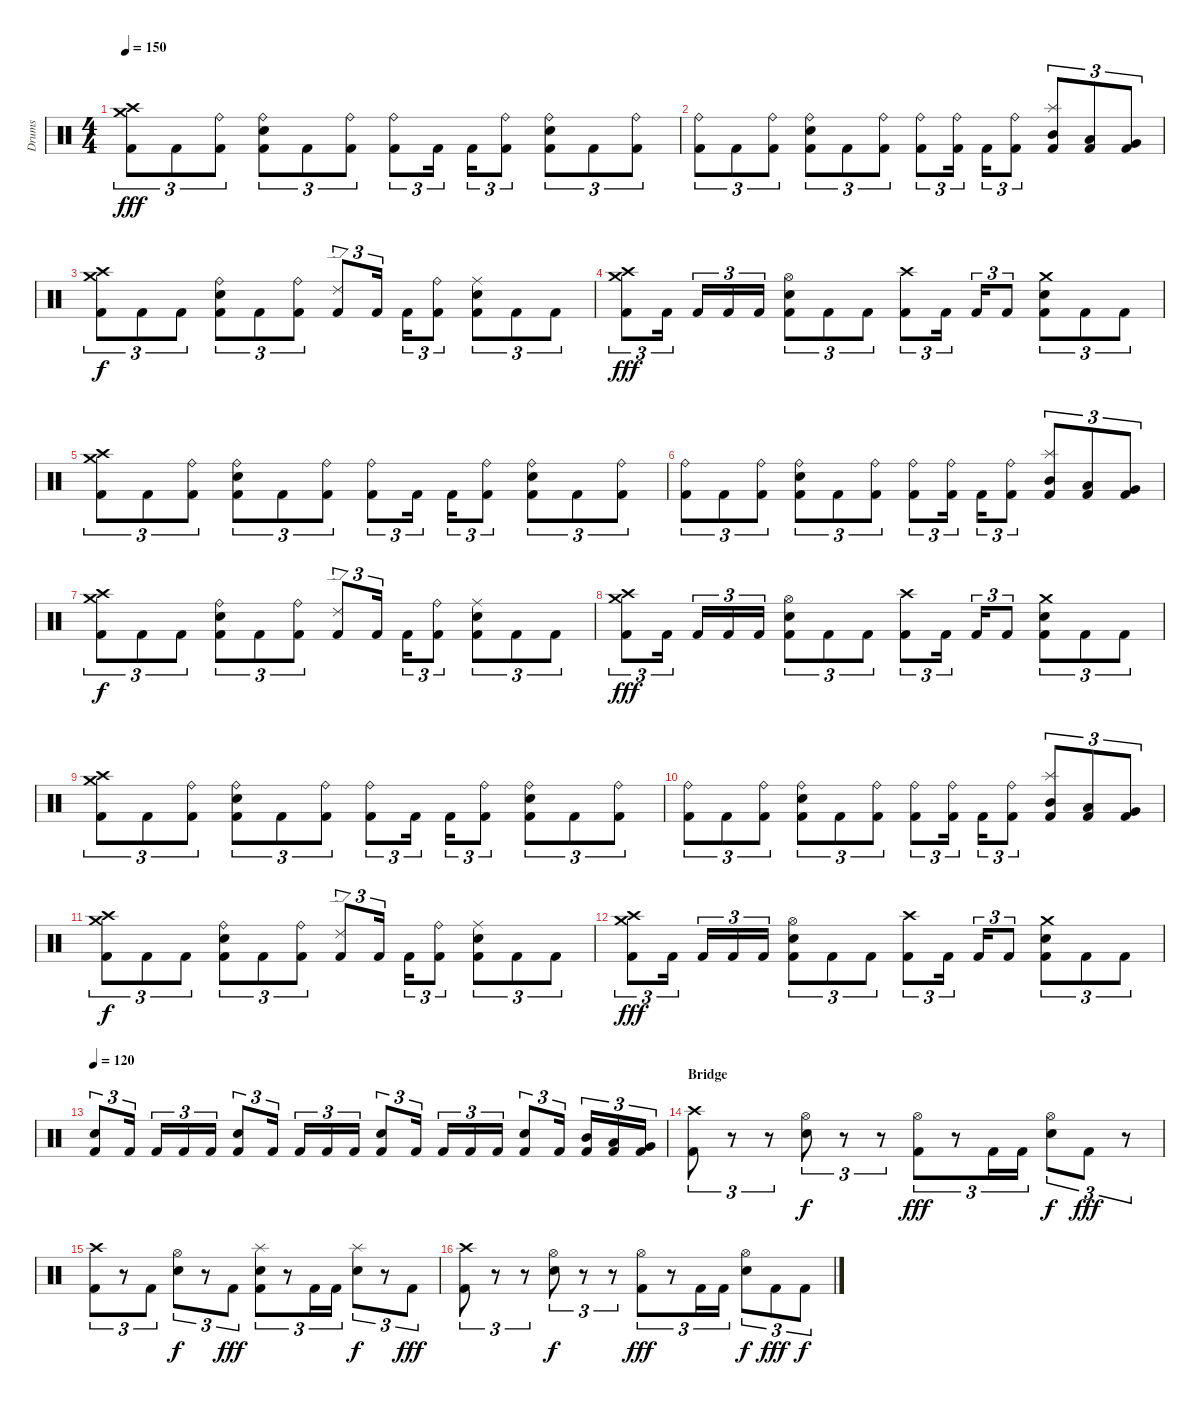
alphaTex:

\track ("Drums" "Drums") {instrument percussion}
\staff {score}
\articulation defaults
\ts (4 4)
\tempo 150
\clef neutral
\ks c
("Crash medium (hit)" "Crash high (hit)" "Kick (hit) 2").8{tu (3 2) dy fff} "Kick (hit) 2".8{tu (3 2)} ("Ride (bell)" "Kick (hit) 2").8{tu (3 2)} ("Ride (bell)" "Snare (hit) 2" "Kick (hit) 2").8{tu (3 2)} "Kick (hit) 2".8{tu (3 2)} ("Ride (bell)" "Kick (hit) 2").8{tu (3 2)} ("Ride (bell)" "Kick (hit) 2").8{tu (3 2)} "Kick (hit) 2".16{tu (3 2)} "Kick (hit) 2".16{tu (3 2)} ("Ride (bell)" "Kick (hit) 2").8{tu (3 2)} ("Ride (bell)" "Snare (hit) 2" "Kick (hit) 2").8{tu (3 2)} "Kick (hit) 2".8{tu (3 2)} ("Ride (bell)" "Kick (hit) 2").8{tu (3 2)} |
("Ride (bell)" "Kick (hit) 2").8{tu (3 2)} "Kick (hit) 2".8{tu (3 2)} ("Ride (bell)" "Kick (hit) 2").8{tu (3 2)} ("Ride (bell)" "Snare (hit) 2" "Kick (hit) 2").8{tu (3 2)} "Kick (hit) 2".8{tu (3 2)} ("Ride (bell)" "Kick (hit) 2").8{tu (3 2)} ("Ride (bell)" "Kick (hit) 2").8{tu (3 2)} ("Ride (bell)" "Kick (hit) 2").16{tu (3 2)} "Kick (hit) 2".16{tu (3 2)} ("Ride (bell)" "Kick (hit) 2").8{tu (3 2)} ("Splash (hit)" "Mid Tom (hit)" "Kick (hit) 2").8{tu (3 2)} ("Low Tom (hit)" "Kick (hit) 2").8{tu (3 2)} ("Very Low Tom (hit)" "Kick (hit) 2").8{tu (3 2)} |
("Crash medium (hit)" "Crash high (hit)" "Kick (hit) 2").8{tu (3 2) dy f} "Kick (hit) 2".8{tu (3 2)} "Kick (hit) 2".8{tu (3 2)} ("Ride (bell)" "Snare (hit) 2" "Kick (hit) 2").8{tu (3 2)} "Kick (hit) 2".8{tu (3 2)} ("Ride (bell)" "Kick (hit) 2").8{tu (3 2)} ("Ride (edge) 2" "Kick (hit) 2").8{tu (3 2)} "Kick (hit) 2".16{tu (3 2)} "Kick (hit) 2".16{tu (3 2)} ("Ride (bell)" "Kick (hit) 2").8{tu (3 2)} ("Ride (middle)" "Snare (hit) 2" "Kick (hit) 2").8{tu (3 2)} "Kick (hit) 2".8{tu (3 2)} "Kick (hit) 2".8{tu (3 2)} |
("Crash medium (hit)" "Crash high (hit)" "Kick (hit) 2").8{tu (3 2) dy fff} "Kick (hit) 2".16{tu (3 2)} "Kick (hit) 2".16{tu (3 2)} "Kick (hit) 2".16{tu (3 2)} "Kick (hit) 2".16{tu (3 2)} ("Hi-Hat (open)" "Snare (hit) 2" "Kick (hit) 2").8{tu (3 2)} "Kick (hit) 2".8{tu (3 2)} "Kick (hit) 2".8{tu (3 2)} ("Crash high (hit)" "Kick (hit) 2").8{tu (3 2)} "Kick (hit) 2".16{tu (3 2)} "Kick (hit) 2".16{tu (3 2)} "Kick (hit) 2".8{tu (3 2)} ("Crash medium (hit)" "Snare (hit) 2" "Kick (hit) 2").8{tu (3 2)} "Kick (hit) 2".8{tu (3 2)} "Kick (hit) 2".8{tu (3 2)} |
("Crash medium (hit)" "Crash high (hit)" "Kick (hit) 2").8{tu (3 2)} "Kick (hit) 2".8{tu (3 2)} ("Ride (bell)" "Kick (hit) 2").8{tu (3 2)} ("Ride (bell)" "Snare (hit) 2" "Kick (hit) 2").8{tu (3 2)} "Kick (hit) 2".8{tu (3 2)} ("Ride (bell)" "Kick (hit) 2").8{tu (3 2)} ("Ride (bell)" "Kick (hit) 2").8{tu (3 2)} "Kick (hit) 2".16{tu (3 2)} "Kick (hit) 2".16{tu (3 2)} ("Ride (bell)" "Kick (hit) 2").8{tu (3 2)} ("Ride (bell)" "Snare (hit) 2" "Kick (hit) 2").8{tu (3 2)} "Kick (hit) 2".8{tu (3 2)} ("Ride (bell)" "Kick (hit) 2").8{tu (3 2)} |
("Ride (bell)" "Kick (hit) 2").8{tu (3 2)} "Kick (hit) 2".8{tu (3 2)} ("Ride (bell)" "Kick (hit) 2").8{tu (3 2)} ("Ride (bell)" "Snare (hit) 2" "Kick (hit) 2").8{tu (3 2)} "Kick (hit) 2".8{tu (3 2)} ("Ride (bell)" "Kick (hit) 2").8{tu (3 2)} ("Ride (bell)" "Kick (hit) 2").8{tu (3 2)} ("Ride (bell)" "Kick (hit) 2").16{tu (3 2)} "Kick (hit) 2".16{tu (3 2)} ("Ride (bell)" "Kick (hit) 2").8{tu (3 2)} ("Splash (hit)" "Mid Tom (hit)" "Kick (hit) 2").8{tu (3 2)} ("Low Tom (hit)" "Kick (hit) 2").8{tu (3 2)} ("Very Low Tom (hit)" "Kick (hit) 2").8{tu (3 2)} |
("Crash medium (hit)" "Crash high (hit)" "Kick (hit) 2").8{tu (3 2) dy f} "Kick (hit) 2".8{tu (3 2)} "Kick (hit) 2".8{tu (3 2)} ("Ride (bell)" "Snare (hit) 2" "Kick (hit) 2").8{tu (3 2)} "Kick (hit) 2".8{tu (3 2)} ("Ride (bell)" "Kick (hit) 2").8{tu (3 2)} ("Ride (edge) 2" "Kick (hit) 2").8{tu (3 2)} "Kick (hit) 2".16{tu (3 2)} "Kick (hit) 2".16{tu (3 2)} ("Ride (bell)" "Kick (hit) 2").8{tu (3 2)} ("Ride (middle)" "Snare (hit) 2" "Kick (hit) 2").8{tu (3 2)} "Kick (hit) 2".8{tu (3 2)} "Kick (hit) 2".8{tu (3 2)} |
("Crash medium (hit)" "Crash high (hit)" "Kick (hit) 2").8{tu (3 2) dy fff} "Kick (hit) 2".16{tu (3 2)} "Kick (hit) 2".16{tu (3 2)} "Kick (hit) 2".16{tu (3 2)} "Kick (hit) 2".16{tu (3 2)} ("Hi-Hat (open)" "Snare (hit) 2" "Kick (hit) 2").8{tu (3 2)} "Kick (hit) 2".8{tu (3 2)} "Kick (hit) 2".8{tu (3 2)} ("Crash high (hit)" "Kick (hit) 2").8{tu (3 2)} "Kick (hit) 2".16{tu (3 2)} "Kick (hit) 2".16{tu (3 2)} "Kick (hit) 2".8{tu (3 2)} ("Crash medium (hit)" "Snare (hit) 2" "Kick (hit) 2").8{tu (3 2)} "Kick (hit) 2".8{tu (3 2)} "Kick (hit) 2".8{tu (3 2)} |
("Crash medium (hit)" "Crash high (hit)" "Kick (hit) 2").8{tu (3 2)} "Kick (hit) 2".8{tu (3 2)} ("Ride (bell)" "Kick (hit) 2").8{tu (3 2)} ("Ride (bell)" "Snare (hit) 2" "Kick (hit) 2").8{tu (3 2)} "Kick (hit) 2".8{tu (3 2)} ("Ride (bell)" "Kick (hit) 2").8{tu (3 2)} ("Ride (bell)" "Kick (hit) 2").8{tu (3 2)} "Kick (hit) 2".16{tu (3 2)} "Kick (hit) 2".16{tu (3 2)} ("Ride (bell)" "Kick (hit) 2").8{tu (3 2)} ("Ride (bell)" "Snare (hit) 2" "Kick (hit) 2").8{tu (3 2)} "Kick (hit) 2".8{tu (3 2)} ("Ride (bell)" "Kick (hit) 2").8{tu (3 2)} |
("Ride (bell)" "Kick (hit) 2").8{tu (3 2)} "Kick (hit) 2".8{tu (3 2)} ("Ride (bell)" "Kick (hit) 2").8{tu (3 2)} ("Ride (bell)" "Snare (hit) 2" "Kick (hit) 2").8{tu (3 2)} "Kick (hit) 2".8{tu (3 2)} ("Ride (bell)" "Kick (hit) 2").8{tu (3 2)} ("Ride (bell)" "Kick (hit) 2").8{tu (3 2)} ("Ride (bell)" "Kick (hit) 2").16{tu (3 2)} "Kick (hit) 2".16{tu (3 2)} ("Ride (bell)" "Kick (hit) 2").8{tu (3 2)} ("Splash (hit)" "Mid Tom (hit)" "Kick (hit) 2").8{tu (3 2)} ("Low Tom (hit)" "Kick (hit) 2").8{tu (3 2)} ("Very Low Tom (hit)" "Kick (hit) 2").8{tu (3 2)} |
("Crash medium (hit)" "Crash high (hit)" "Kick (hit) 2").8{tu (3 2) dy f} "Kick (hit) 2".8{tu (3 2)} "Kick (hit) 2".8{tu (3 2)} ("Ride (bell)" "Snare (hit) 2" "Kick (hit) 2").8{tu (3 2)} "Kick (hit) 2".8{tu (3 2)} ("Ride (bell)" "Kick (hit) 2").8{tu (3 2)} ("Ride (edge) 2" "Kick (hit) 2").8{tu (3 2)} "Kick (hit) 2".16{tu (3 2)} "Kick (hit) 2".16{tu (3 2)} ("Ride (bell)" "Kick (hit) 2").8{tu (3 2)} ("Ride (middle)" "Snare (hit) 2" "Kick (hit) 2").8{tu (3 2)} "Kick (hit) 2".8{tu (3 2)} "Kick (hit) 2".8{tu (3 2)} |
("Crash medium (hit)" "Crash high (hit)" "Kick (hit) 2").8{tu (3 2) dy fff} "Kick (hit) 2".16{tu (3 2)} "Kick (hit) 2".16{tu (3 2)} "Kick (hit) 2".16{tu (3 2)} "Kick (hit) 2".16{tu (3 2)} ("Hi-Hat (open)" "Snare (hit) 2" "Kick (hit) 2").8{tu (3 2)} "Kick (hit) 2".8{tu (3 2)} "Kick (hit) 2".8{tu (3 2)} ("Crash high (hit)" "Kick (hit) 2").8{tu (3 2)} "Kick (hit) 2".16{tu (3 2)} "Kick (hit) 2".16{tu (3 2)} "Kick (hit) 2".8{tu (3 2)} ("Crash medium (hit)" "Snare (hit) 2" "Kick (hit) 2").8{tu (3 2)} "Kick (hit) 2".8{tu (3 2)} "Kick (hit) 2".8{tu (3 2)} |
\tempo 120
("Snare (hit) 2" "Kick (hit) 2").8{tu (3 2) volume 16} "Kick (hit) 2".16{tu (3 2)} "Kick (hit) 2".16{tu (3 2)} "Kick (hit) 2".16{tu (3 2)} "Kick (hit) 2".16{tu (3 2)} ("Snare (hit) 2" "Kick (hit) 2").8{tu (3 2)} "Kick (hit) 2".16{tu (3 2)} "Kick (hit) 2".16{tu (3 2)} "Kick (hit) 2".16{tu (3 2)} "Kick (hit) 2".16{tu (3 2)} ("Snare (hit) 2" "Kick (hit) 2").8{tu (3 2)} "Kick (hit) 2".16{tu (3 2)} "Kick (hit) 2".16{tu (3 2)} "Kick (hit) 2".16{tu (3 2)} "Kick (hit) 2".16{tu (3 2)} ("Snare (hit) 2" "Kick (hit) 2").8{tu (3 2)} "Kick (hit) 2".16{tu (3 2)} ("Mid Tom (hit)" "Kick (hit) 2").16{tu (3 2)} ("Low Tom (hit)" "Kick (hit) 2").16{tu (3 2)} ("Very Low Tom (hit)" "Kick (hit) 2").16{tu (3 2)} |
\section ("" "Bridge")
("Crash high (hit)" "Kick (hit) 2").8{tu (3 2)} r.8{tu (3 2)} r.8{tu (3 2)} ("Hi-Hat (open)" "Snare (hit) 2").8{tu (3 2) dy f} r.8{tu (3 2)} r.8{tu (3 2)} ("Hi-Hat (open)" "Kick (hit) 2").8{tu (3 2) dy fff} r.8{tu (3 2)} "Kick (hit) 2".16{tu (3 2)} "Kick (hit) 2".16{tu (3 2)} ("Hi-Hat (open)" "Snare (hit) 2").8{tu (3 2) dy f} "Kick (hit) 2".8{tu (3 2) dy fff} r.8{tu (3 2)} |
("Crash high (hit)" "Kick (hit) 2").8{tu (3 2)} r.8{tu (3 2)} "Kick (hit) 2".8{tu (3 2)} ("Hi-Hat (open)" "Snare (hit) 2").8{tu (3 2) dy f} r.8{tu (3 2)} "Kick (hit) 2".8{tu (3 2) dy fff} ("Splash (hit)" "Snare (hit) 2" "Kick (hit) 2").8{tu (3 2)} r.8{tu (3 2)} "Kick (hit) 2".16{tu (3 2)} "Kick (hit) 2".16{tu (3 2)} ("Splash (hit)" "Snare (hit) 2").8{tu (3 2) dy f} r.8{tu (3 2)} "Kick (hit) 2".8{tu (3 2) dy fff} |
("Crash high (hit)" "Kick (hit) 2").8{tu (3 2)} r.8{tu (3 2)} r.8{tu (3 2)} ("Hi-Hat (open)" "Snare (hit) 2").8{tu (3 2) dy f} r.8{tu (3 2)} r.8{tu (3 2)} ("Hi-Hat (open)" "Kick (hit) 2").8{tu (3 2) dy fff} r.8{tu (3 2)} "Kick (hit) 2".16{tu (3 2)} "Kick (hit) 2".16{tu (3 2)} ("Hi-Hat (open)" "Snare (hit) 2").8{tu (3 2) dy f} "Kick (hit) 2".8{tu (3 2) dy fff} "Kick (hit) 2".8{tu (3 2) dy f}
